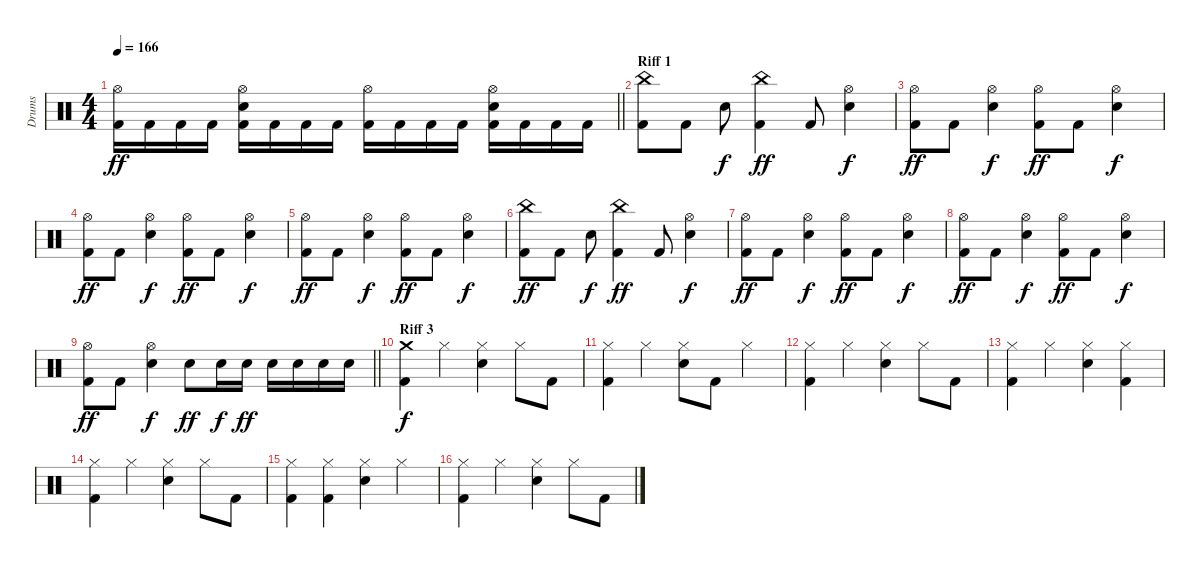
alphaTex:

\track ("Drums" "Drums") {instrument percussion}
\staff {score}
\articulation defaults
\ts (4 4)
\tempo 166
\clef neutral
\barLineRight lightlight
\ks c
("Hi-Hat (open)" "Kick (hit) 2").16{dy ff} "Kick (hit) 2".16 "Kick (hit) 2".16 "Kick (hit) 2".16 ("Hi-Hat (open)" "Snare (hit) 2" "Kick (hit) 2").16 "Kick (hit) 2".16 "Kick (hit) 2".16 "Kick (hit) 2".16 ("Hi-Hat (open)" "Kick (hit) 2").16 "Kick (hit) 2".16 "Kick (hit) 2".16 "Kick (hit) 2".16 ("Hi-Hat (open)" "Snare (hit) 2" "Kick (hit) 2").16 "Kick (hit) 2".16 "Kick (hit) 2".16 "Kick (hit) 2".16 |
\section ("" "Riff 1")
("China (hit)" "Kick (hit) 2").8 "Kick (hit) 2".8 "Snare (hit) 2".8{dy f} ("China (hit)" "Kick (hit) 2").4{dy ff} "Kick (hit) 2".8 ("Hi-Hat (open)" "Snare (hit) 2").4{dy f} |
("Hi-Hat (open)" "Kick (hit) 2").8{dy ff} "Kick (hit) 2".8 ("Hi-Hat (open)" "Snare (hit) 2").4{dy f} ("Hi-Hat (open)" "Kick (hit) 2").8{dy ff} "Kick (hit) 2".8 ("Hi-Hat (open)" "Snare (hit) 2").4{dy f} |
("Hi-Hat (open)" "Kick (hit) 2").8{dy ff} "Kick (hit) 2".8 ("Hi-Hat (open)" "Snare (hit) 2").4{dy f} ("Hi-Hat (open)" "Kick (hit) 2").8{dy ff} "Kick (hit) 2".8 ("Hi-Hat (open)" "Snare (hit) 2").4{dy f} |
("Hi-Hat (open)" "Kick (hit) 2").8{dy ff} "Kick (hit) 2".8 ("Hi-Hat (open)" "Snare (hit) 2").4{dy f} ("Hi-Hat (open)" "Kick (hit) 2").8{dy ff} "Kick (hit) 2".8 ("Hi-Hat (open)" "Snare (hit) 2").4{dy f} |
("China (hit)" "Kick (hit) 2").8{dy ff} "Kick (hit) 2".8 "Snare (hit) 2".8{dy f} ("China (hit)" "Kick (hit) 2").4{dy ff} "Kick (hit) 2".8 ("Hi-Hat (open)" "Snare (hit) 2").4{dy f} |
("Hi-Hat (open)" "Kick (hit) 2").8{dy ff} "Kick (hit) 2".8 ("Hi-Hat (open)" "Snare (hit) 2").4{dy f} ("Hi-Hat (open)" "Kick (hit) 2").8{dy ff} "Kick (hit) 2".8 ("Hi-Hat (open)" "Snare (hit) 2").4{dy f} |
("Hi-Hat (open)" "Kick (hit) 2").8{dy ff} "Kick (hit) 2".8 ("Hi-Hat (open)" "Snare (hit) 2").4{dy f} ("Hi-Hat (open)" "Kick (hit) 2").8{dy ff} "Kick (hit) 2".8 ("Hi-Hat (open)" "Snare (hit) 2").4{dy f} |
\barLineRight lightlight
("Hi-Hat (open)" "Kick (hit) 2").8{dy ff} "Kick (hit) 2".8 ("Hi-Hat (open)" "Snare (hit) 2").4{dy f} "Snare (hit) 2".8{dy ff} "Snare (hit) 2".16{dy f} "Snare (hit) 2".16{dy ff} "Snare (hit) 2".16 "Snare (hit) 2".16 "Snare (hit) 2".16 "Snare (hit) 2".16 |
\section ("" "Riff 3")
("Crash medium (hit)" "Kick (hit) 2").4{dy f} "Hi-Hat (closed)".4 ("Hi-Hat (closed)" "Snare (hit) 2").4 "Hi-Hat (closed)".8 "Kick (hit) 2".8 |
("Hi-Hat (closed)" "Kick (hit) 2").4 "Hi-Hat (closed)".4 ("Hi-Hat (closed)" "Snare (hit) 2").8 "Kick (hit) 2".8 "Hi-Hat (closed)".4 |
("Hi-Hat (closed)" "Kick (hit) 2").4 "Hi-Hat (closed)".4 ("Hi-Hat (closed)" "Snare (hit) 2").4 "Hi-Hat (closed)".8 "Kick (hit) 2".8 |
("Hi-Hat (closed)" "Kick (hit) 2").4 "Hi-Hat (closed)".4 ("Hi-Hat (closed)" "Snare (hit) 2").4 ("Hi-Hat (closed)" "Kick (hit) 2").4 |
("Hi-Hat (closed)" "Kick (hit) 2").4 "Hi-Hat (closed)".4 ("Hi-Hat (closed)" "Snare (hit) 2").4 "Hi-Hat (closed)".8 "Kick (hit) 2".8 |
("Hi-Hat (closed)" "Kick (hit) 2").4 ("Hi-Hat (closed)" "Kick (hit) 2").4 ("Hi-Hat (closed)" "Snare (hit) 2").4 "Hi-Hat (closed)".4 |
("Hi-Hat (closed)" "Kick (hit) 2").4 "Hi-Hat (closed)".4 ("Hi-Hat (closed)" "Snare (hit) 2").4 "Hi-Hat (closed)".8 "Kick (hit) 2".8
